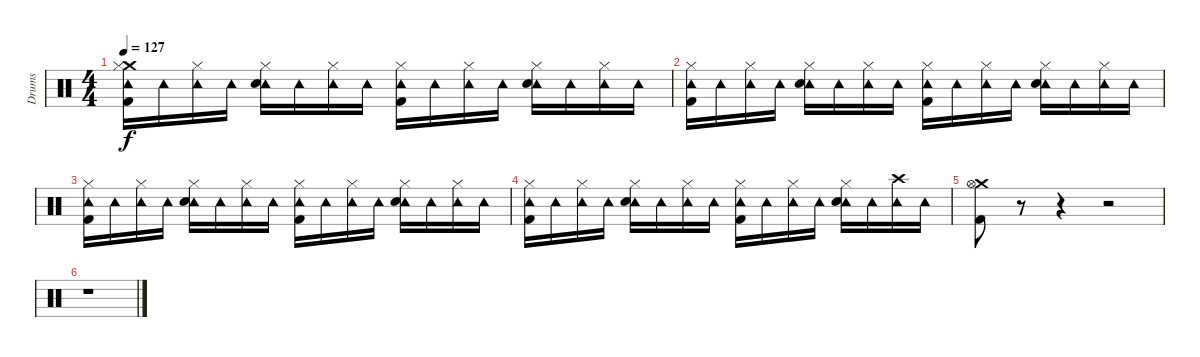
\track ("Drums" "Drums") {instrument percussion}
\staff {score}
\articulation defaults
\ts (4 4)
\tempo 127
\clef neutral
\ks c
("Crash medium (hit)" "Tambourine (hit)" "Hi-Hat (closed)" "Kick (hit) 2").16{dy f} "Tambourine (hit)".16 ("Tambourine (hit)" "Hi-Hat (closed)").16 "Tambourine (hit)".16 ("Tambourine (hit)" "Hi-Hat (closed)" "Snare (hit) 2").16 "Tambourine (hit)".16 ("Tambourine (hit)" "Hi-Hat (closed)").16 "Tambourine (hit)".16 ("Tambourine (hit)" "Hi-Hat (closed)" "Kick (hit) 2").16 "Tambourine (hit)".16 ("Tambourine (hit)" "Hi-Hat (closed)").16 "Tambourine (hit)".16 ("Tambourine (hit)" "Hi-Hat (closed)" "Snare (hit) 2").16 "Tambourine (hit)".16 ("Tambourine (hit)" "Hi-Hat (closed)").16 "Tambourine (hit)".16 |
("Tambourine (hit)" "Hi-Hat (closed)" "Kick (hit) 2").16 "Tambourine (hit)".16 ("Tambourine (hit)" "Hi-Hat (closed)").16 "Tambourine (hit)".16 ("Tambourine (hit)" "Hi-Hat (closed)" "Snare (hit) 2").16 "Tambourine (hit)".16 ("Tambourine (hit)" "Hi-Hat (closed)").16 "Tambourine (hit)".16 ("Tambourine (hit)" "Hi-Hat (closed)" "Kick (hit) 2").16 "Tambourine (hit)".16 ("Tambourine (hit)" "Hi-Hat (closed)").16 "Tambourine (hit)".16 ("Tambourine (hit)" "Hi-Hat (closed)" "Snare (hit) 2").16 "Tambourine (hit)".16 ("Tambourine (hit)" "Hi-Hat (closed)").16 "Tambourine (hit)".16 |
("Tambourine (hit)" "Hi-Hat (closed)" "Kick (hit) 2").16 "Tambourine (hit)".16 ("Tambourine (hit)" "Hi-Hat (closed)").16 "Tambourine (hit)".16 ("Tambourine (hit)" "Hi-Hat (closed)" "Snare (hit) 2").16 "Tambourine (hit)".16 ("Tambourine (hit)" "Hi-Hat (closed)").16 "Tambourine (hit)".16 ("Tambourine (hit)" "Hi-Hat (closed)" "Kick (hit) 2").16 "Tambourine (hit)".16 ("Tambourine (hit)" "Hi-Hat (closed)").16 "Tambourine (hit)".16 ("Tambourine (hit)" "Hi-Hat (closed)" "Snare (hit) 2").16 "Tambourine (hit)".16 ("Tambourine (hit)" "Hi-Hat (closed)").16 "Tambourine (hit)".16 |
("Tambourine (hit)" "Hi-Hat (closed)" "Kick (hit) 2").16 "Tambourine (hit)".16 ("Tambourine (hit)" "Hi-Hat (closed)").16 "Tambourine (hit)".16 ("Tambourine (hit)" "Hi-Hat (closed)" "Snare (hit) 2").16 "Tambourine (hit)".16 ("Tambourine (hit)" "Hi-Hat (closed)").16 "Tambourine (hit)".16 ("Tambourine (hit)" "Hi-Hat (closed)" "Kick (hit) 2").16 "Tambourine (hit)".16 ("Tambourine (hit)" "Hi-Hat (closed)").16 "Tambourine (hit)".16 ("Tambourine (hit)" "Hi-Hat (closed)" "Snare (hit) 2").16 "Tambourine (hit)".16 ("Tambourine (hit)" "Crash high (hit)").16 "Tambourine (hit)".16 |
("Crash medium (hit)" "Hi-Hat (open)" "Kick (hit) 2").8 r.8 r.4 r.2 |
r.1
